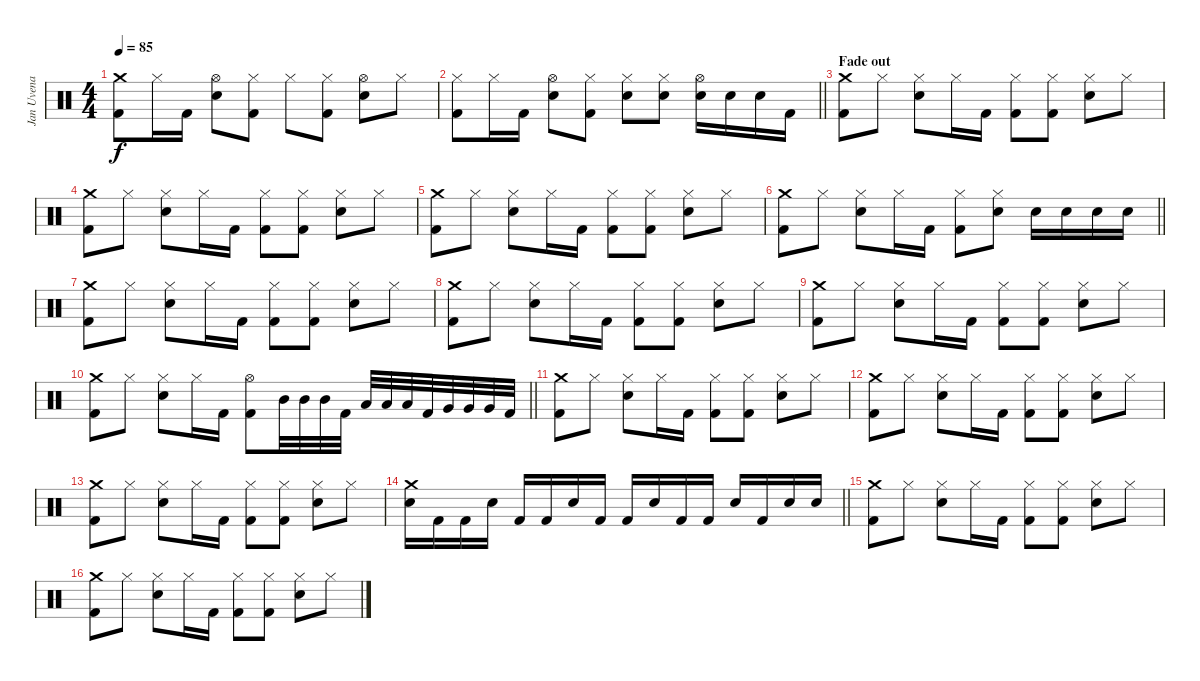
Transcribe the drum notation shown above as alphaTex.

\track ("Jan Uvena" "Jan Uvena") {instrument percussion}
\staff {score}
\articulation defaults
\ts (4 4)
\tempo 85
\clef neutral
\ks c
("Crash medium (hit)" "Kick (hit) 2").8{dy f} "Hi-Hat (closed)".16 "Kick (hit) 2".16 ("Hi-Hat (open)" "Snare (hit) 2").8 ("Hi-Hat (closed)" "Kick (hit) 2").8 "Hi-Hat (closed)".8 ("Hi-Hat (closed)" "Kick (hit) 2").8 ("Hi-Hat (open)" "Snare (hit) 2").8 "Hi-Hat (closed)".8 |
\barLineRight lightlight
("Hi-Hat (closed)" "Kick (hit) 2").8 "Hi-Hat (closed)".16 "Kick (hit) 2".16 ("Hi-Hat (open)" "Snare (hit) 2").8 ("Hi-Hat (closed)" "Kick (hit) 2").8 ("Hi-Hat (closed)" "Snare (hit) 2").8 ("Hi-Hat (closed)" "Snare (hit) 2").8 ("Hi-Hat (open)" "Snare (hit) 2").16 "Snare (hit) 2".16 "Snare (hit) 2".16 "Kick (hit) 2".16 |
\section ("" "Fade out")
("Crash medium (hit)" "Kick (hit) 2").8 "Hi-Hat (closed)".8 ("Hi-Hat (closed)" "Snare (hit) 2").8 "Hi-Hat (closed)".16 "Kick (hit) 2".16 ("Hi-Hat (closed)" "Kick (hit) 2").8 ("Hi-Hat (closed)" "Kick (hit) 2").8 ("Hi-Hat (closed)" "Snare (hit) 2").8 "Hi-Hat (closed)".8 |
("Crash medium (hit)" "Kick (hit) 2").8 "Hi-Hat (closed)".8 ("Hi-Hat (closed)" "Snare (hit) 2").8 "Hi-Hat (closed)".16 "Kick (hit) 2".16 ("Hi-Hat (closed)" "Kick (hit) 2").8 ("Hi-Hat (closed)" "Kick (hit) 2").8 ("Hi-Hat (closed)" "Snare (hit) 2").8 "Hi-Hat (closed)".8 |
("Crash medium (hit)" "Kick (hit) 2").8 "Hi-Hat (closed)".8 ("Hi-Hat (closed)" "Snare (hit) 2").8 "Hi-Hat (closed)".16 "Kick (hit) 2".16 ("Hi-Hat (closed)" "Kick (hit) 2").8 ("Hi-Hat (closed)" "Kick (hit) 2").8 ("Hi-Hat (closed)" "Snare (hit) 2").8 "Hi-Hat (closed)".8 |
\barLineRight lightlight
("Crash medium (hit)" "Kick (hit) 2").8 "Hi-Hat (closed)".8 ("Hi-Hat (closed)" "Snare (hit) 2").8 "Hi-Hat (closed)".16 "Kick (hit) 2".16 ("Hi-Hat (closed)" "Kick (hit) 2").8 ("Hi-Hat (closed)" "Snare (hit) 2").8 "Snare (hit) 2".16 "Snare (hit) 2".16 "Snare (hit) 2".16 "Snare (hit) 2".16 |
("Crash medium (hit)" "Kick (hit) 2").8 "Hi-Hat (closed)".8 ("Hi-Hat (closed)" "Snare (hit) 2").8 "Hi-Hat (closed)".16 "Kick (hit) 2".16 ("Hi-Hat (closed)" "Kick (hit) 2").8 ("Hi-Hat (closed)" "Kick (hit) 2").8 ("Hi-Hat (closed)" "Snare (hit) 2").8 "Hi-Hat (closed)".8 |
("Crash medium (hit)" "Kick (hit) 2").8 "Hi-Hat (closed)".8 ("Hi-Hat (closed)" "Snare (hit) 2").8 "Hi-Hat (closed)".16 "Kick (hit) 2".16 ("Hi-Hat (closed)" "Kick (hit) 2").8 ("Hi-Hat (closed)" "Kick (hit) 2").8 ("Hi-Hat (closed)" "Snare (hit) 2").8 "Hi-Hat (closed)".8 |
("Crash medium (hit)" "Kick (hit) 2").8 "Hi-Hat (closed)".8 ("Hi-Hat (closed)" "Snare (hit) 2").8 "Hi-Hat (closed)".16 "Kick (hit) 2".16 ("Hi-Hat (closed)" "Kick (hit) 2").8 ("Hi-Hat (closed)" "Kick (hit) 2").8 ("Hi-Hat (closed)" "Snare (hit) 2").8 "Hi-Hat (closed)".8 |
\barLineRight lightlight
("Crash medium (hit)" "Kick (hit) 2").8 "Hi-Hat (closed)".8 ("Hi-Hat (closed)" "Snare (hit) 2").8 "Hi-Hat (closed)".16 "Kick (hit) 2".16 ("Hi-Hat (open)" "Kick (hit) 2").8 "Mid Tom (hit)".32 "Mid Tom (hit)".32 "Mid Tom (hit)".32 "Kick (hit) 2".32 "Low Tom (hit)".32 "Low Tom (hit)".32 "Low Tom (hit)".32 "Kick (hit) 2".32 "Very Low Tom (hit)".32 "Very Low Tom (hit)".32 "Very Low Tom (hit)".32 "Kick (hit) 2".32 |
("Crash medium (hit)" "Kick (hit) 2").8 "Hi-Hat (closed)".8 ("Hi-Hat (closed)" "Snare (hit) 2").8 "Hi-Hat (closed)".16 "Kick (hit) 2".16 ("Hi-Hat (closed)" "Kick (hit) 2").8 ("Hi-Hat (closed)" "Kick (hit) 2").8 ("Hi-Hat (closed)" "Snare (hit) 2").8 "Hi-Hat (closed)".8 |
("Crash medium (hit)" "Kick (hit) 2").8 "Hi-Hat (closed)".8 ("Hi-Hat (closed)" "Snare (hit) 2").8 "Hi-Hat (closed)".16 "Kick (hit) 2".16 ("Hi-Hat (closed)" "Kick (hit) 2").8 ("Hi-Hat (closed)" "Kick (hit) 2").8 ("Hi-Hat (closed)" "Snare (hit) 2").8 "Hi-Hat (closed)".8 |
("Crash medium (hit)" "Kick (hit) 2").8 "Hi-Hat (closed)".8 ("Hi-Hat (closed)" "Snare (hit) 2").8 "Hi-Hat (closed)".16 "Kick (hit) 2".16 ("Hi-Hat (closed)" "Kick (hit) 2").8 ("Hi-Hat (closed)" "Kick (hit) 2").8 ("Hi-Hat (closed)" "Snare (hit) 2").8 "Hi-Hat (closed)".8 |
\barLineRight lightlight
("Crash medium (hit)" "Snare (hit) 2").16 "Kick (hit) 2".16 "Kick (hit) 2".16 "Snare (hit) 2".16 "Kick (hit) 2".16 "Kick (hit) 2".16 "Snare (hit) 2".16 "Kick (hit) 2".16 "Kick (hit) 2".16 "Snare (hit) 2".16 "Kick (hit) 2".16 "Kick (hit) 2".16 "Snare (hit) 2".16 "Kick (hit) 2".16 "Snare (hit) 2".16 "Snare (hit) 2".16 |
("Crash medium (hit)" "Kick (hit) 2").8 "Hi-Hat (closed)".8 ("Hi-Hat (closed)" "Snare (hit) 2").8 "Hi-Hat (closed)".16 "Kick (hit) 2".16 ("Hi-Hat (closed)" "Kick (hit) 2").8 ("Hi-Hat (closed)" "Kick (hit) 2").8 ("Hi-Hat (closed)" "Snare (hit) 2").8 "Hi-Hat (closed)".8 |
("Crash medium (hit)" "Kick (hit) 2").8 "Hi-Hat (closed)".8 ("Hi-Hat (closed)" "Snare (hit) 2").8 "Hi-Hat (closed)".16 "Kick (hit) 2".16 ("Hi-Hat (closed)" "Kick (hit) 2").8 ("Hi-Hat (closed)" "Kick (hit) 2").8 ("Hi-Hat (closed)" "Snare (hit) 2").8 "Hi-Hat (closed)".8
